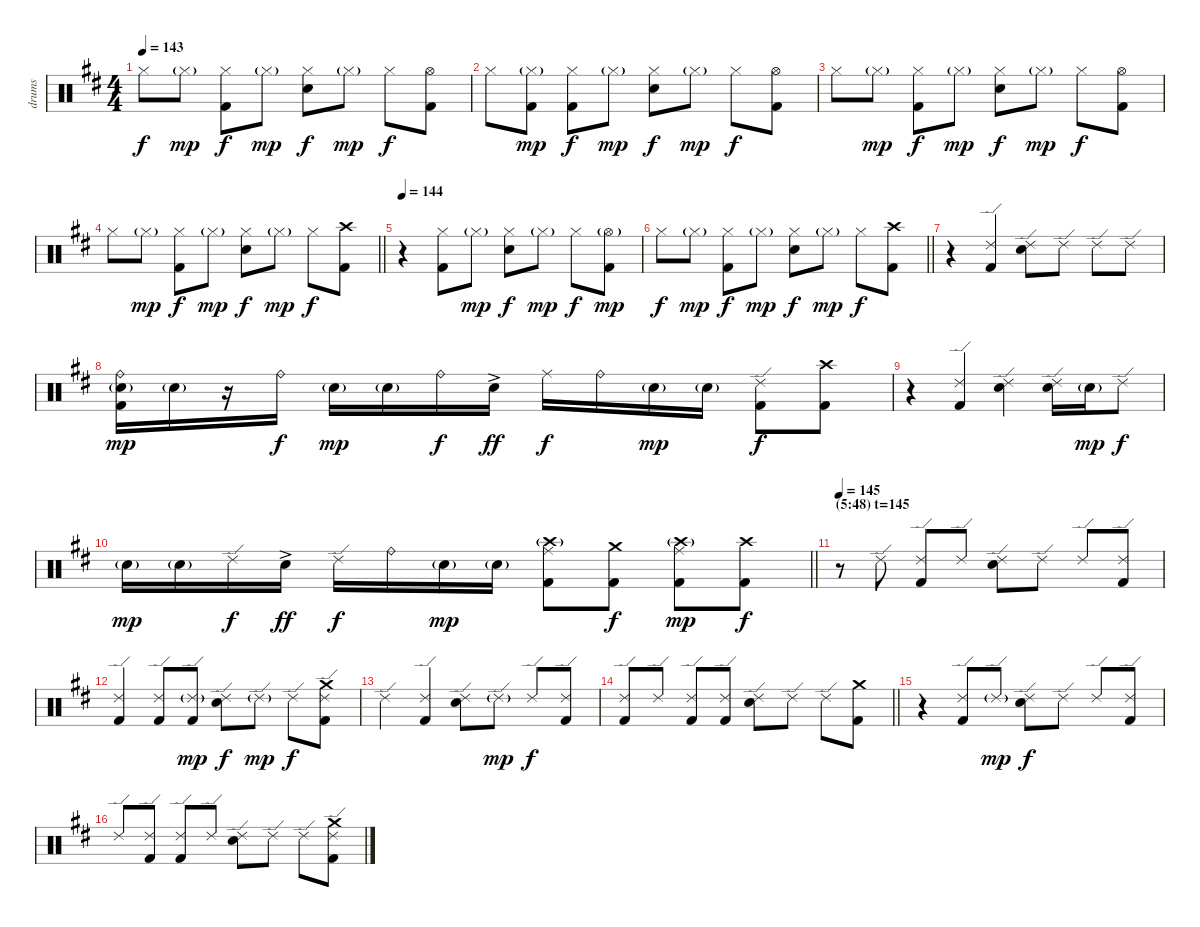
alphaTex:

\track ("drums" "drums") {instrument percussion}
\staff {score}
\articulation defaults
\ts (4 4)
\tempo 143
\clef neutral
\ks d "Hi-Hat (closed)".8{dy f} "Hi-Hat (closed)"{g}.8{dy mp}
("Hi-Hat (closed)" "Kick (hit) 2").8{dy f} "Hi-Hat (closed)"{g}.8{dy mp} ("Hi-Hat (closed)" "Electric Snare (hit)").8{dy f} "Hi-Hat (closed)"{g}.8{dy mp} "Hi-Hat (closed)".8{dy f} ("Hi-Hat (open)" "Kick (hit) 2").8 |
"Hi-Hat (closed)".8 ("Hi-Hat (closed)"{g} "Kick (hit) 2").8{dy mp} ("Hi-Hat (closed)" "Kick (hit) 2").8{dy f} "Hi-Hat (closed)"{g}.8{dy mp} ("Hi-Hat (closed)" "Electric Snare (hit)").8{dy f} "Hi-Hat (closed)"{g}.8{dy mp} "Hi-Hat (closed)".8{dy f} ("Hi-Hat (open)" "Kick (hit) 2").8 |
"Hi-Hat (closed)".8 "Hi-Hat (closed)"{g}.8{dy mp} ("Hi-Hat (closed)" "Kick (hit) 2").8{dy f} "Hi-Hat (closed)"{g}.8{dy mp} ("Hi-Hat (closed)" "Electric Snare (hit)").8{dy f} "Hi-Hat (closed)"{g}.8{dy mp} "Hi-Hat (closed)".8{dy f} ("Hi-Hat (open)" "Kick (hit) 2").8 |
\barLineRight lightlight "Hi-Hat (closed)".8 "Hi-Hat (closed)"{g}.8{dy mp}
("Hi-Hat (closed)" "Kick (hit) 2").8{dy f} "Hi-Hat (closed)"{g}.8{dy mp} ("Hi-Hat (closed)" "Electric Snare (hit)").8{dy f} "Hi-Hat (closed)"{g}.8{dy mp} "Hi-Hat (closed)".8{dy f} ("Crash high (hit)" "Kick (hit) 2").8 |
\tempo 144
r.4 ("Hi-Hat (closed)" "Kick (hit) 2").8 "Hi-Hat (closed)"{g}.8{dy mp} ("Hi-Hat (closed)" "Electric Snare (hit)").8{dy f} "Hi-Hat (closed)"{g}.8{dy mp} "Hi-Hat (closed)".8{dy f} ("Hi-Hat (open)"{g} "Kick (hit) 2").8{dy mp} |
\barLineRight lightlight "Hi-Hat (closed)".8{dy f} "Hi-Hat (closed)"{g}.8{dy mp}
("Hi-Hat (closed)" "Kick (hit) 2").8{dy f} "Hi-Hat (closed)"{g}.8{dy mp} ("Hi-Hat (closed)" "Electric Snare (hit)").8{dy f} "Hi-Hat (closed)"{g}.8{dy mp} "Hi-Hat (closed)".8{dy f} ("Crash high (hit)" "Kick (hit) 2").8 |
r.4 ("Ride (edge) 2" "Kick (hit) 2").4 ("Ride (edge) 2" "Electric Snare (hit)").8 "Ride (edge) 2".8 "Ride (edge) 2".8 "Ride (edge) 2".8 |
("Ride (bell)" "Electric Snare (hit)"{g} "Kick (hit) 2").16{dy mp} "Electric Snare (hit)"{g}.16 r.16 "Ride (bell)".16{dy f} "Electric Snare (hit)"{g}.16{dy mp} "Electric Snare (hit)"{g}.16 "Ride (bell)".16{dy f} "Electric Snare (hit)"{ac}.16{dy ff} "Ride (middle)".16{dy f} "Ride (bell)".16 "Electric Snare (hit)"{g}.16{dy mp} "Electric Snare (hit)"{g}.16 ("Ride (edge) 2" "Kick (hit) 2").8{dy f} ("Crash high (hit)" "Kick (hit) 2").8 |
r.4 ("Ride (edge) 2" "Kick (hit) 2").4 ("Ride (edge) 2" "Electric Snare (hit)").4 ("Ride (edge) 2" "Electric Snare (hit)").16 "Electric Snare (hit)"{g}.16{dy mp} "Ride (edge) 2".8{dy f} |
\barLineRight lightlight "Electric Snare (hit)"{g}.16{dy mp} "Electric Snare (hit)"{g}.16 "Ride (edge) 2".16{dy f} "Electric Snare (hit)"{ac}.16{dy ff} "Ride (edge) 2".16{dy f} "Ride (bell)".16 "Electric Snare (hit)"{g}.16{dy mp} "Electric Snare (hit)"{g}.16
("Ride (middle)" "Crash high (hit)"{g} "Kick (hit) 2").8 ("Crash medium (hit)" "Kick (hit) 2").8{dy f} ("Ride (middle)" "Crash high (hit)"{g} "Kick (hit) 2").8{dy mp} ("Crash high (hit)" "Kick (hit) 2").8{dy f} |
\section ("" "(5:48) t=145")
\tempo 145
r.8 "Ride (edge) 2".8 ("Ride (edge) 2" "Kick (hit) 2").8 "Ride (edge) 2".8 ("Ride (edge) 2" "Electric Snare (hit)").8 "Ride (edge) 2".8 "Ride (edge) 2".8 ("Ride (edge) 2" "Kick (hit) 2").8 |
("Ride (edge) 2" "Kick (hit) 2").4 ("Ride (edge) 2" "Kick (hit) 2").8 ("Ride (edge) 2"{g} "Kick (hit) 2").8{dy mp} ("Ride (edge) 2" "Electric Snare (hit)").8{dy f} "Ride (edge) 2"{g}.8{dy mp} "Ride (edge) 2".8{dy f} ("Ride (edge) 2" "Crash medium (hit)" "Kick (hit) 2").8 |
"Ride (edge) 2".4 ("Ride (edge) 2" "Kick (hit) 2").4 ("Ride (edge) 2" "Electric Snare (hit)").8 "Ride (edge) 2"{g}.8{dy mp} "Ride (edge) 2".8{dy f} ("Ride (edge) 2" "Kick (hit) 2").8 |
\barLineRight lightlight
("Ride (edge) 2" "Kick (hit) 2").8 "Ride (edge) 2".8 ("Ride (edge) 2" "Kick (hit) 2").8 ("Ride (edge) 2" "Kick (hit) 2").8 ("Ride (edge) 2" "Electric Snare (hit)").8 "Ride (edge) 2".8 "Ride (edge) 2".8 ("Crash medium (hit)" "Kick (hit) 2").8 |
r.4 ("Ride (edge) 2" "Kick (hit) 2").8 "Ride (edge) 2"{g}.8{dy mp} ("Ride (edge) 2" "Electric Snare (hit)").8{dy f} "Ride (edge) 2".8 "Ride (edge) 2".8 ("Ride (edge) 2" "Kick (hit) 2").8 |
"Ride (edge) 2".8 ("Ride (edge) 2" "Kick (hit) 2").8 ("Ride (edge) 2" "Kick (hit) 2").8 "Ride (edge) 2".8 ("Ride (edge) 2" "Electric Snare (hit)").8 "Ride (edge) 2".8 "Ride (edge) 2".8 ("Ride (edge) 2" "Crash medium (hit)" "Kick (hit) 2").8
